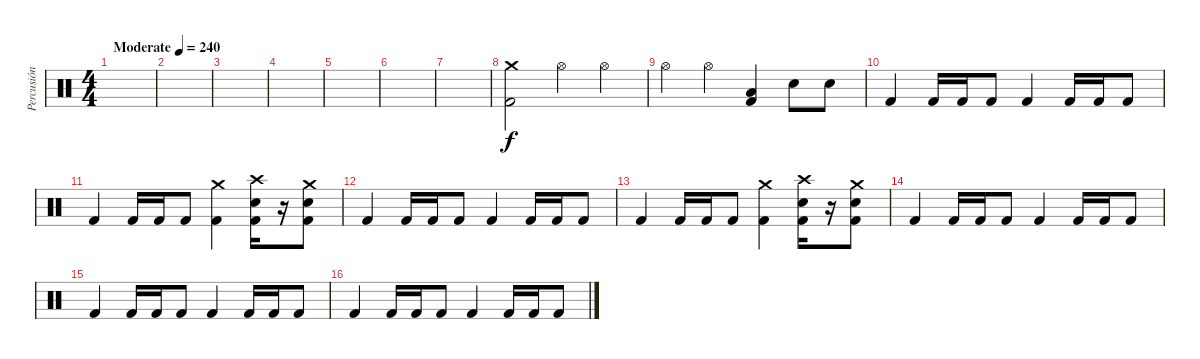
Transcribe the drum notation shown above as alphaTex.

\track ("Percusión" "Percusión") {instrument percussion}
\staff {score}
\articulation defaults
\ts (4 4)
\tempo (240 "Moderate")
\clef neutral
\ks c
|
|
|
|
|
|
|
("Crash medium (hit)" "Kick (hit) 2").2 "Hi-Hat (open)".4 "Hi-Hat (open)".4 |
"Hi-Hat (open)".4 "Hi-Hat (open)".4 ("Low Tom (hit)" "Kick (hit) 2").4 "Electric Snare (hit)".8 "Electric Snare (hit)".8 |
"Kick (hit) 2".4 "Kick (hit) 2".16 "Kick (hit) 2".16 "Kick (hit) 2".8 "Kick (hit) 2".4 "Kick (hit) 2".16 "Kick (hit) 2".16 "Kick (hit) 2".8 |
"Kick (hit) 2".4 "Kick (hit) 2".16 "Kick (hit) 2".16 "Kick (hit) 2".8 ("Crash medium (hit)" "Kick (hit) 2").4 ("Crash high (hit)" "Electric Snare (hit)" "Kick (hit) 2").16 r.16 ("Crash medium (hit)" "Electric Snare (hit)" "Kick (hit) 2").8 |
"Kick (hit) 2".4 "Kick (hit) 2".16 "Kick (hit) 2".16 "Kick (hit) 2".8 "Kick (hit) 2".4 "Kick (hit) 2".16 "Kick (hit) 2".16 "Kick (hit) 2".8 |
"Kick (hit) 2".4 "Kick (hit) 2".16 "Kick (hit) 2".16 "Kick (hit) 2".8 ("Crash medium (hit)" "Kick (hit) 2").4 ("Crash high (hit)" "Electric Snare (hit)" "Kick (hit) 2").16 r.16 ("Crash medium (hit)" "Electric Snare (hit)" "Kick (hit) 2").8 |
"Kick (hit) 2".4 "Kick (hit) 2".16 "Kick (hit) 2".16 "Kick (hit) 2".8 "Kick (hit) 2".4 "Kick (hit) 2".16 "Kick (hit) 2".16 "Kick (hit) 2".8 |
"Kick (hit) 2".4 "Kick (hit) 2".16 "Kick (hit) 2".16 "Kick (hit) 2".8 "Kick (hit) 2".4 "Kick (hit) 2".16 "Kick (hit) 2".16 "Kick (hit) 2".8 |
"Kick (hit) 2".4 "Kick (hit) 2".16 "Kick (hit) 2".16 "Kick (hit) 2".8 "Kick (hit) 2".4 "Kick (hit) 2".16 "Kick (hit) 2".16 "Kick (hit) 2".8
